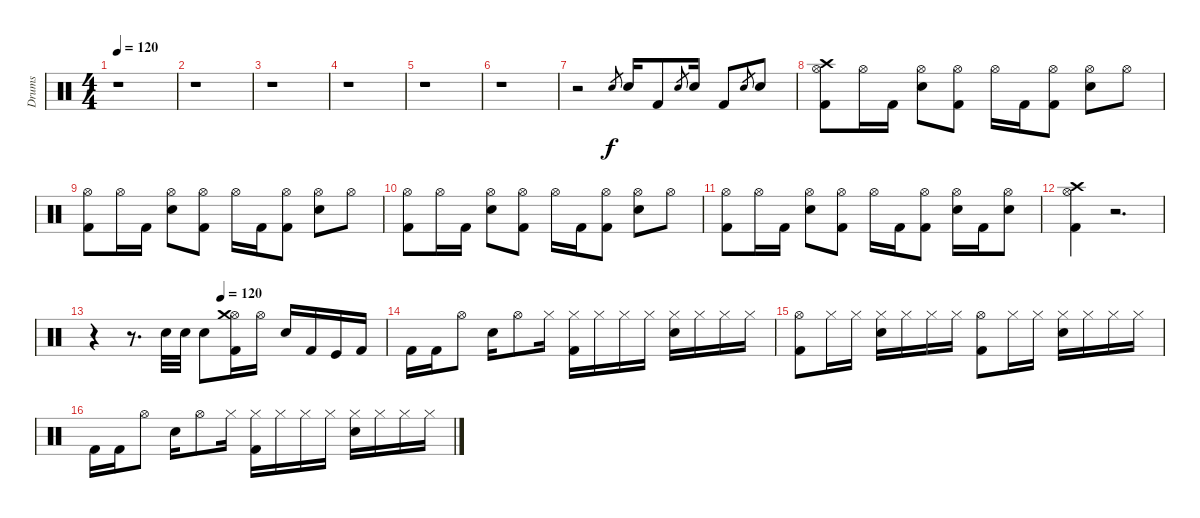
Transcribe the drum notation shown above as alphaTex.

\track ("Drums" "Drums") {instrument percussion}
\staff {score}
\articulation defaults
\ts (4 4)
\tempo 120
\tempo 70
\tempo 120
\clef neutral
\ks c
r.1{dy f} |
r.1 |
r.1 |
r.1 |
r.1 |
r.1 |
r.2 "Snare (hit) 2".8{gr} "Snare (hit) 2".16 "Kick (hit) 2".8 "Snare (hit) 2".8{gr} "Snare (hit) 2".16 "Kick (hit) 2".8 "Snare (hit) 2".8{gr} "Snare (hit) 2".8 |
("Kick (hit) 2" "Hi-Hat (open)" "Crash high (hit)").8 "Hi-Hat (open)".16 "Kick (hit) 2".16 ("Snare (hit) 2" "Hi-Hat (open)").8 ("Kick (hit) 2" "Hi-Hat (open)").8 "Hi-Hat (open)".16 "Kick (hit) 2".16 ("Kick (hit) 2" "Hi-Hat (open)").8 ("Snare (hit) 2" "Hi-Hat (open)").8 "Hi-Hat (open)".8 |
("Kick (hit) 2" "Hi-Hat (open)").8 "Hi-Hat (open)".16 "Kick (hit) 2".16 ("Snare (hit) 2" "Hi-Hat (open)").8 ("Kick (hit) 2" "Hi-Hat (open)").8 "Hi-Hat (open)".16 "Kick (hit) 2".16 ("Kick (hit) 2" "Hi-Hat (open)").8 ("Snare (hit) 2" "Hi-Hat (open)").8 "Hi-Hat (open)".8 |
("Kick (hit) 2" "Hi-Hat (open)").8 "Hi-Hat (open)".16 "Kick (hit) 2".16 ("Snare (hit) 2" "Hi-Hat (open)").8 ("Kick (hit) 2" "Hi-Hat (open)").8 "Hi-Hat (open)".16 "Kick (hit) 2".16 ("Kick (hit) 2" "Hi-Hat (open)").8 ("Snare (hit) 2" "Hi-Hat (open)").8 "Hi-Hat (open)".8 |
("Kick (hit) 2" "Hi-Hat (open)").8 "Hi-Hat (open)".16 "Kick (hit) 2".16 ("Snare (hit) 2" "Hi-Hat (open)").8 ("Kick (hit) 2" "Hi-Hat (open)").8 "Hi-Hat (open)".16 "Kick (hit) 2".16 ("Kick (hit) 2" "Hi-Hat (open)").8 ("Snare (hit) 2" "Hi-Hat (open)").16 "Kick (hit) 2".16 ("Snare (hit) 2" "Hi-Hat (open)").8 |
("Kick (hit) 2" "Hi-Hat (open)" "Crash high (hit)").4 r.2{d} |
\tempo (120 0.4375)
r.4 r.8{d} "Snare (hit) 2".32 "Snare (hit) 2".32 "Snare (hit) 2".8 ("Kick (hit) 2" "Hi-Hat (open)" "Crash medium (hit)").16 "Hi-Hat (open)".16 "Snare (hit) 2".16 "Kick (hit) 2".16 "Kick (hit)".16 "Kick (hit) 2".16 |
"Kick (hit) 2".16 "Kick (hit) 2".16 "Hi-Hat (open)".8 "Snare (hit) 2".16 "Hi-Hat (open)".8 "Hi-Hat (closed)".16 ("Kick (hit) 2" "Hi-Hat (closed)").16 "Hi-Hat (closed)".16 "Hi-Hat (closed)".16 "Hi-Hat (closed)".16 ("Snare (hit) 2" "Hi-Hat (closed)").16 "Hi-Hat (closed)".16 "Hi-Hat (closed)".16 "Hi-Hat (closed)".16 |
("Kick (hit) 2" "Hi-Hat (open)").8 "Hi-Hat (closed)".16 "Hi-Hat (closed)".16 ("Snare (hit) 2" "Hi-Hat (closed)").16 "Hi-Hat (closed)".16 "Hi-Hat (closed)".16 "Hi-Hat (closed)".16 ("Kick (hit) 2" "Hi-Hat (open)").8 "Hi-Hat (closed)".16 "Hi-Hat (closed)".16 ("Snare (hit) 2" "Hi-Hat (closed)").16 "Hi-Hat (closed)".16 "Hi-Hat (closed)".16 "Hi-Hat (closed)".16 |
"Kick (hit) 2".16 "Kick (hit) 2".16 "Hi-Hat (open)".8 "Snare (hit) 2".16 "Hi-Hat (open)".8 "Hi-Hat (closed)".16 ("Kick (hit) 2" "Hi-Hat (closed)").16 "Hi-Hat (closed)".16 "Hi-Hat (closed)".16 "Hi-Hat (closed)".16 ("Snare (hit) 2" "Hi-Hat (closed)").16 "Hi-Hat (closed)".16 "Hi-Hat (closed)".16 "Hi-Hat (closed)".16
